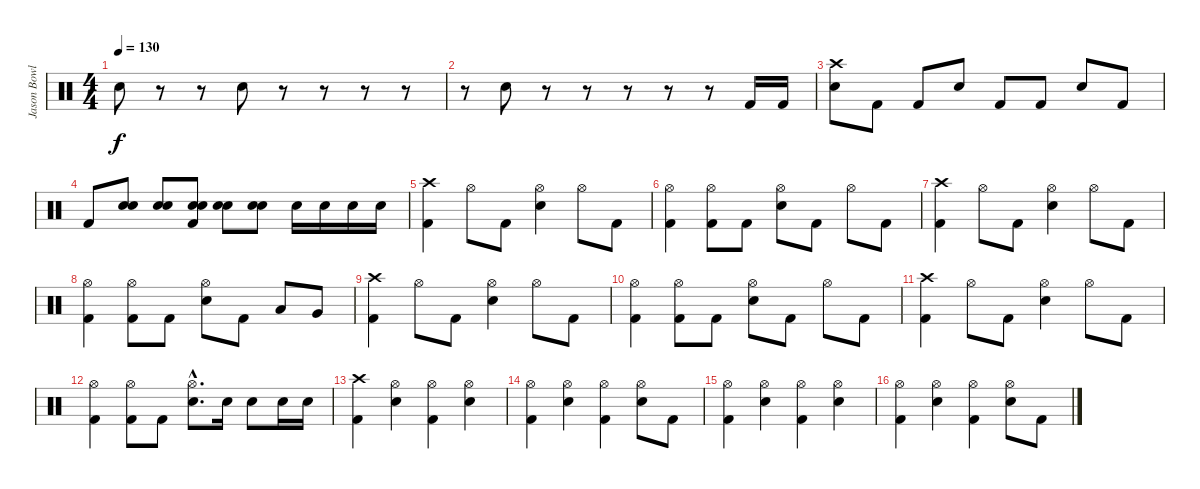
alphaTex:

\track ("Jason Bowld" "Jason Bowl") {instrument percussion}
\staff {score}
\articulation defaults
\ts (4 4)
\tempo 130
\clef neutral
\ks c "Snare (hit) 2".8{dy f}
r.8 r.8 "Snare (hit) 2".8 r.8 r.8 r.8 r.8 |
r.8 "Snare (hit) 2".8 r.8 r.8 r.8 r.8 r.8 "Kick (hit) 2".16 "Kick (hit) 2".16 |
("Crash high (hit)" "Snare (hit) 2").8 "Kick (hit) 2".8 "Kick (hit) 2".8 "Snare (hit) 2".8 "Kick (hit) 2".8 "Kick (hit) 2".8 "Snare (hit) 2".8 "Kick (hit) 2".8 |
"Kick (hit) 2".8 ("Snare (hit) 2" "Snare (hit) 2").8 ("Snare (hit) 2" "Snare (hit) 2").8 ("Snare (hit) 2" "Snare (hit) 2" "Kick (hit) 2").8 ("Snare (hit) 2" "Snare (hit) 2").8 ("Snare (hit) 2" "Snare (hit) 2").8 "Snare (hit) 2".16 "Snare (hit) 2".16 "Snare (hit) 2".16 "Snare (hit) 2".16 |
("Crash high (hit)" "Kick (hit) 2").4 "Hi-Hat (open)".8 "Kick (hit) 2".8 ("Hi-Hat (open)" "Snare (hit) 2").4 "Hi-Hat (open)".8 "Kick (hit) 2".8 |
("Hi-Hat (open)" "Kick (hit) 2").4 ("Hi-Hat (open)" "Kick (hit) 2").8 "Kick (hit) 2".8 ("Hi-Hat (open)" "Snare (hit) 2").8 "Kick (hit) 2".8 "Hi-Hat (open)".8 "Kick (hit) 2".8 |
("Crash high (hit)" "Kick (hit) 2").4 "Hi-Hat (open)".8 "Kick (hit) 2".8 ("Hi-Hat (open)" "Snare (hit) 2").4 "Hi-Hat (open)".8 "Kick (hit) 2".8 |
("Hi-Hat (open)" "Kick (hit) 2").4 ("Hi-Hat (open)" "Kick (hit) 2").8 "Kick (hit) 2".8 ("Hi-Hat (open)" "Snare (hit) 2").8 "Kick (hit) 2".8 "Low Tom (hit)".8 "Very Low Tom (hit)".8 |
("Crash high (hit)" "Kick (hit) 2").4 "Hi-Hat (open)".8 "Kick (hit) 2".8 ("Hi-Hat (open)" "Snare (hit) 2").4 "Hi-Hat (open)".8 "Kick (hit) 2".8 |
("Hi-Hat (open)" "Kick (hit) 2").4 ("Hi-Hat (open)" "Kick (hit) 2").8 "Kick (hit) 2".8 ("Hi-Hat (open)" "Snare (hit) 2").8 "Kick (hit) 2".8 "Hi-Hat (open)".8 "Kick (hit) 2".8 |
("Crash high (hit)" "Kick (hit) 2").4 "Hi-Hat (open)".8 "Kick (hit) 2".8 ("Hi-Hat (open)" "Snare (hit) 2").4 "Hi-Hat (open)".8 "Kick (hit) 2".8 |
("Hi-Hat (open)" "Kick (hit) 2").4 ("Hi-Hat (open)" "Kick (hit) 2").8 "Kick (hit) 2".8 ("Hi-Hat (open)"{hac} "Snare (hit) 2"{hac}).8{d} "Snare (hit) 2".16 "Snare (hit) 2".8 "Snare (hit) 2".16 "Snare (hit) 2".16 |
("Crash high (hit)" "Kick (hit) 2").4 ("Hi-Hat (open)" "Snare (hit) 2").4 ("Hi-Hat (open)" "Kick (hit) 2").4 ("Hi-Hat (open)" "Snare (hit) 2").4 |
("Hi-Hat (open)" "Kick (hit) 2").4 ("Hi-Hat (open)" "Snare (hit) 2").4 ("Hi-Hat (open)" "Kick (hit) 2").4 ("Hi-Hat (open)" "Snare (hit) 2").8 "Kick (hit) 2".8 |
("Hi-Hat (open)" "Kick (hit) 2").4 ("Hi-Hat (open)" "Snare (hit) 2").4 ("Hi-Hat (open)" "Kick (hit) 2").4 ("Hi-Hat (open)" "Snare (hit) 2").4 |
("Hi-Hat (open)" "Kick (hit) 2").4 ("Hi-Hat (open)" "Snare (hit) 2").4 ("Hi-Hat (open)" "Kick (hit) 2").4 ("Hi-Hat (open)" "Snare (hit) 2").8 "Kick (hit) 2".8
